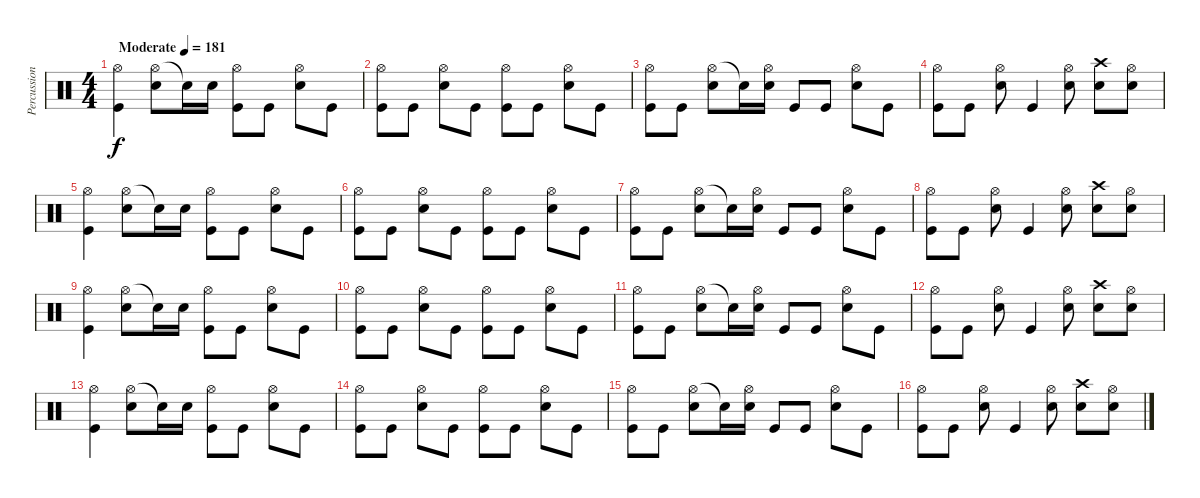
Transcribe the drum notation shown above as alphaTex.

\track ("Percussion" "Percussion") {instrument percussion}
\staff {score}
\articulation defaults
\ts (4 4)
\tempo (181 "Moderate")
\clef neutral
\ks c
("Hi-Hat (open)" "Kick (hit)").4{dy f} ("Hi-Hat (open)" "Electric Snare (hit)").8 "Electric Snare (hit)"{t}.16 "Electric Snare (hit)".16 ("Hi-Hat (open)" "Kick (hit)").8 "Kick (hit)".8 ("Hi-Hat (open)" "Electric Snare (hit)").8 "Kick (hit)".8 |
("Hi-Hat (open)" "Kick (hit)").8 "Kick (hit)".8 ("Hi-Hat (open)" "Electric Snare (hit)").8 "Kick (hit)".8 ("Hi-Hat (open)" "Kick (hit)").8 "Kick (hit)".8 ("Hi-Hat (open)" "Electric Snare (hit)").8 "Kick (hit)".8 |
("Hi-Hat (open)" "Kick (hit)").8 "Kick (hit)".8 ("Hi-Hat (open)" "Electric Snare (hit)").8 "Electric Snare (hit)"{t}.16 ("Hi-Hat (open)" "Electric Snare (hit)").16 "Kick (hit)".8 "Kick (hit)".8 ("Hi-Hat (open)" "Electric Snare (hit)").8 "Kick (hit)".8 |
("Hi-Hat (open)" "Kick (hit)").8 "Kick (hit)".8 ("Hi-Hat (open)" "Electric Snare (hit)").8 "Kick (hit)".4 ("Hi-Hat (open)" "Electric Snare (hit)").8 ("Crash high (hit)" "Electric Snare (hit)").8 ("Hi-Hat (open)" "Electric Snare (hit)").8 |
("Hi-Hat (open)" "Kick (hit)").4 ("Hi-Hat (open)" "Electric Snare (hit)").8 "Electric Snare (hit)"{t}.16 "Electric Snare (hit)".16 ("Hi-Hat (open)" "Kick (hit)").8 "Kick (hit)".8 ("Hi-Hat (open)" "Electric Snare (hit)").8 "Kick (hit)".8 |
("Hi-Hat (open)" "Kick (hit)").8 "Kick (hit)".8 ("Hi-Hat (open)" "Electric Snare (hit)").8 "Kick (hit)".8 ("Hi-Hat (open)" "Kick (hit)").8 "Kick (hit)".8 ("Hi-Hat (open)" "Electric Snare (hit)").8 "Kick (hit)".8 |
("Hi-Hat (open)" "Kick (hit)").8 "Kick (hit)".8 ("Hi-Hat (open)" "Electric Snare (hit)").8 "Electric Snare (hit)"{t}.16 ("Hi-Hat (open)" "Electric Snare (hit)").16 "Kick (hit)".8 "Kick (hit)".8 ("Hi-Hat (open)" "Electric Snare (hit)").8 "Kick (hit)".8 |
("Hi-Hat (open)" "Kick (hit)").8 "Kick (hit)".8 ("Hi-Hat (open)" "Electric Snare (hit)").8 "Kick (hit)".4 ("Hi-Hat (open)" "Electric Snare (hit)").8 ("Crash high (hit)" "Electric Snare (hit)").8 ("Hi-Hat (open)" "Electric Snare (hit)").8 |
("Hi-Hat (open)" "Kick (hit)").4 ("Hi-Hat (open)" "Electric Snare (hit)").8 "Electric Snare (hit)"{t}.16 "Electric Snare (hit)".16 ("Hi-Hat (open)" "Kick (hit)").8 "Kick (hit)".8 ("Hi-Hat (open)" "Electric Snare (hit)").8 "Kick (hit)".8 |
("Hi-Hat (open)" "Kick (hit)").8 "Kick (hit)".8 ("Hi-Hat (open)" "Electric Snare (hit)").8 "Kick (hit)".8 ("Hi-Hat (open)" "Kick (hit)").8 "Kick (hit)".8 ("Hi-Hat (open)" "Electric Snare (hit)").8 "Kick (hit)".8 |
("Hi-Hat (open)" "Kick (hit)").8 "Kick (hit)".8 ("Hi-Hat (open)" "Electric Snare (hit)").8 "Electric Snare (hit)"{t}.16 ("Hi-Hat (open)" "Electric Snare (hit)").16 "Kick (hit)".8 "Kick (hit)".8 ("Hi-Hat (open)" "Electric Snare (hit)").8 "Kick (hit)".8 |
("Hi-Hat (open)" "Kick (hit)").8 "Kick (hit)".8 ("Hi-Hat (open)" "Electric Snare (hit)").8 "Kick (hit)".4 ("Hi-Hat (open)" "Electric Snare (hit)").8 ("Crash high (hit)" "Electric Snare (hit)").8 ("Hi-Hat (open)" "Electric Snare (hit)").8 |
("Hi-Hat (open)" "Kick (hit)").4 ("Hi-Hat (open)" "Electric Snare (hit)").8 "Electric Snare (hit)"{t}.16 "Electric Snare (hit)".16 ("Hi-Hat (open)" "Kick (hit)").8 "Kick (hit)".8 ("Hi-Hat (open)" "Electric Snare (hit)").8 "Kick (hit)".8 |
("Hi-Hat (open)" "Kick (hit)").8 "Kick (hit)".8 ("Hi-Hat (open)" "Electric Snare (hit)").8 "Kick (hit)".8 ("Hi-Hat (open)" "Kick (hit)").8 "Kick (hit)".8 ("Hi-Hat (open)" "Electric Snare (hit)").8 "Kick (hit)".8 |
("Hi-Hat (open)" "Kick (hit)").8 "Kick (hit)".8 ("Hi-Hat (open)" "Electric Snare (hit)").8 "Electric Snare (hit)"{t}.16 ("Hi-Hat (open)" "Electric Snare (hit)").16 "Kick (hit)".8 "Kick (hit)".8 ("Hi-Hat (open)" "Electric Snare (hit)").8 "Kick (hit)".8 |
("Hi-Hat (open)" "Kick (hit)").8 "Kick (hit)".8 ("Hi-Hat (open)" "Electric Snare (hit)").8 "Kick (hit)".4 ("Hi-Hat (open)" "Electric Snare (hit)").8 ("Crash high (hit)" "Electric Snare (hit)").8 ("Hi-Hat (open)" "Electric Snare (hit)").8
